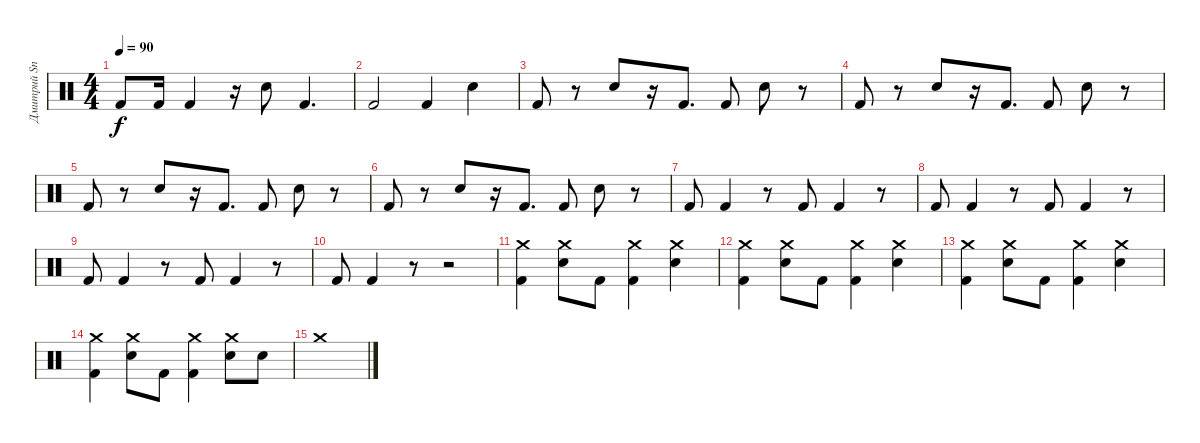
\track ("Дмитрий Snake Хакимов" "Дмитрий Sn") {instrument percussion}
\staff {score}
\articulation defaults
\ts (4 4)
\tempo 90
\clef neutral
\ks c "Kick (hit) 2".8{dy f} "Kick (hit) 2".16 "Kick (hit) 2".4
r.16 "Snare (hit) 2".8 "Kick (hit) 2".4{d} |
"Kick (hit) 2".2 "Kick (hit) 2".4 "Snare (hit) 2".4 |
"Kick (hit) 2".8 r.8 "Snare (hit) 2".8 r.16 "Kick (hit) 2".8{d} "Kick (hit) 2".8 "Snare (hit) 2".8 r.8 |
"Kick (hit) 2".8 r.8 "Snare (hit) 2".8 r.16 "Kick (hit) 2".8{d} "Kick (hit) 2".8 "Snare (hit) 2".8 r.8 |
"Kick (hit) 2".8 r.8 "Snare (hit) 2".8 r.16 "Kick (hit) 2".8{d} "Kick (hit) 2".8 "Snare (hit) 2".8 r.8 |
"Kick (hit) 2".8 r.8 "Snare (hit) 2".8 r.16 "Kick (hit) 2".8{d} "Kick (hit) 2".8 "Snare (hit) 2".8 r.8 |
"Kick (hit) 2".8 "Kick (hit) 2".4 r.8 "Kick (hit) 2".8 "Kick (hit) 2".4 r.8 |
"Kick (hit) 2".8 "Kick (hit) 2".4 r.8 "Kick (hit) 2".8 "Kick (hit) 2".4 r.8 |
"Kick (hit) 2".8 "Kick (hit) 2".4 r.8 "Kick (hit) 2".8 "Kick (hit) 2".4 r.8 |
"Kick (hit) 2".8 "Kick (hit) 2".4 r.8 r.2 |
("Crash medium (hit)" "Kick (hit) 2").4 ("Crash medium (hit)" "Snare (hit) 2").8 "Kick (hit) 2".8 ("Crash medium (hit)" "Kick (hit) 2").4 ("Crash medium (hit)" "Snare (hit) 2").4 |
("Crash medium (hit)" "Kick (hit) 2").4 ("Crash medium (hit)" "Snare (hit) 2").8 "Kick (hit) 2".8 ("Crash medium (hit)" "Kick (hit) 2").4 ("Crash medium (hit)" "Snare (hit) 2").4 |
("Crash medium (hit)" "Kick (hit) 2").4 ("Crash medium (hit)" "Snare (hit) 2").8 "Kick (hit) 2".8 ("Crash medium (hit)" "Kick (hit) 2").4 ("Crash medium (hit)" "Snare (hit) 2").4 |
("Crash medium (hit)" "Kick (hit) 2").4 ("Crash medium (hit)" "Snare (hit) 2").8 "Kick (hit) 2".8 ("Crash medium (hit)" "Kick (hit) 2").4 ("Crash medium (hit)" "Snare (hit) 2").8 "Snare (hit) 2".8 |
"Crash medium (hit)".1
